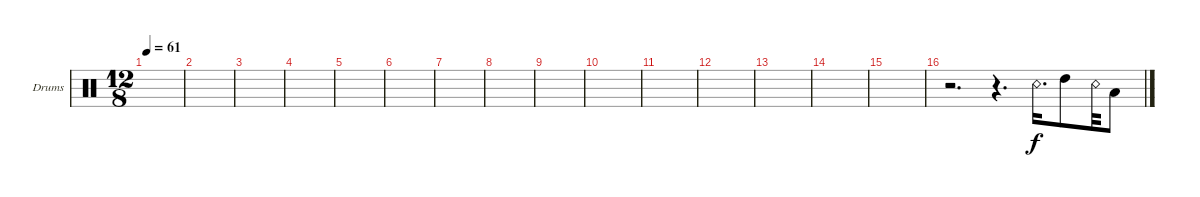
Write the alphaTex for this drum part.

\bracketExtendMode groupsimilarinstruments
\firstSystemTrackNameOrientation horizontal
\otherSystemsTrackNameOrientation horizontal
\track ("Drums - Nick Mason" "Drums") {instrument percussion}
\staff {score}
\articulation defaults
\ts (12 8)
\tempo 61
\clef neutral
\scale
0.333333
\ks c
|
\scale
0.333333 |
\scale
0.333333 |
\scale
0.333333 |
\scale
0.333333 |
\scale
0.333333 |
\scale
0.333333 |
\scale
0.333333 |
\scale
0.333333 |
\scale
0.333333 |
\scale
0.333333 |
\scale
0.333333 |
\scale
0.333333 |
\scale
0.333333 |
\scale
0.333333 |
\scale
0.333333 r.2{d} r.4{d} "Snare (rim shot)".16{d} "High Tom (hit)".8 "Snare (rim shot)".32 "Low Tom (hit)".8
